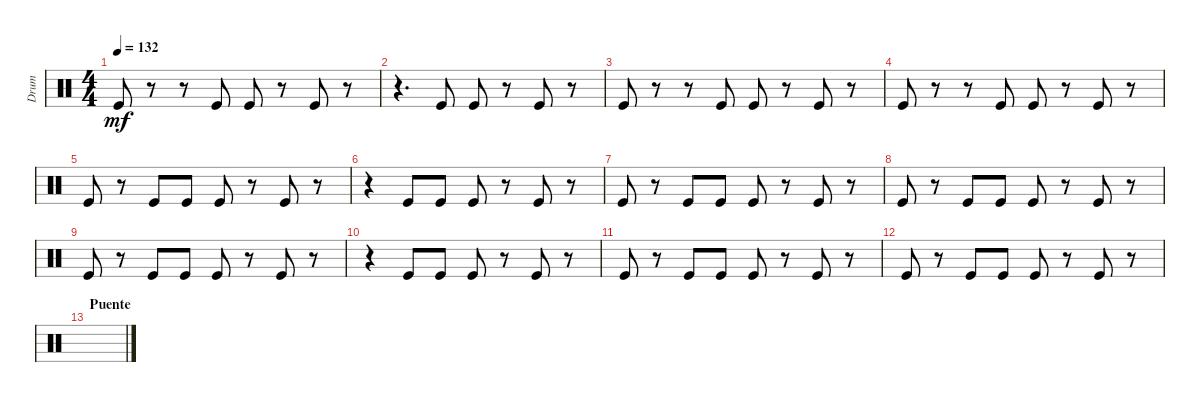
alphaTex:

\track ("Drum" "Drum") {instrument percussion}
\staff {score}
\articulation defaults
\ts (4 4)
\tempo 132
\clef neutral
\ks c "Kick (hit)".8{dy mf}
r.8 r.8 "Kick (hit)".8 "Kick (hit)".8 r.8 "Kick (hit)".8 r.8 |
r.4{d} "Kick (hit)".8 "Kick (hit)".8 r.8 "Kick (hit)".8 r.8 |
"Kick (hit)".8 r.8 r.8 "Kick (hit)".8 "Kick (hit)".8 r.8 "Kick (hit)".8 r.8 |
"Kick (hit)".8 r.8 r.8 "Kick (hit)".8 "Kick (hit)".8 r.8 "Kick (hit)".8 r.8 |
"Kick (hit)".8 r.8 "Kick (hit)".8 "Kick (hit)".8 "Kick (hit)".8 r.8 "Kick (hit)".8 r.8 |
r.4 "Kick (hit)".8 "Kick (hit)".8 "Kick (hit)".8 r.8 "Kick (hit)".8 r.8 |
"Kick (hit)".8 r.8 "Kick (hit)".8 "Kick (hit)".8 "Kick (hit)".8 r.8 "Kick (hit)".8 r.8 |
"Kick (hit)".8 r.8 "Kick (hit)".8 "Kick (hit)".8 "Kick (hit)".8 r.8 "Kick (hit)".8 r.8 |
"Kick (hit)".8 r.8 "Kick (hit)".8 "Kick (hit)".8 "Kick (hit)".8 r.8 "Kick (hit)".8 r.8 |
r.4 "Kick (hit)".8 "Kick (hit)".8 "Kick (hit)".8 r.8 "Kick (hit)".8 r.8 |
"Kick (hit)".8 r.8 "Kick (hit)".8 "Kick (hit)".8 "Kick (hit)".8 r.8 "Kick (hit)".8 r.8 |
"Kick (hit)".8 r.8 "Kick (hit)".8 "Kick (hit)".8 "Kick (hit)".8 r.8 "Kick (hit)".8 r.8 |
\section ("" "Puente")
